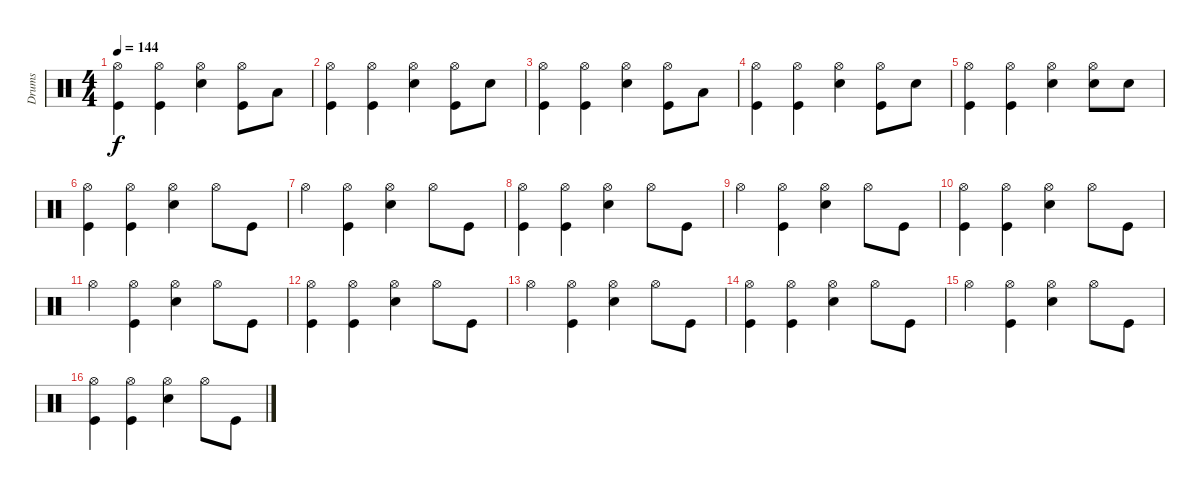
\track ("Drums               " "Drums     ") {instrument percussion}
\staff {score}
\articulation defaults
\ts (4 4)
\tempo 144
\clef neutral
\ks c
("Kick (hit)" "Hi-Hat (open)").4{dy f} ("Kick (hit)" "Hi-Hat (open)").4 ("Snare (hit) 2" "Hi-Hat (open)").4 ("Kick (hit)" "Hi-Hat (open)").8 "Low Tom (hit)".8 |
("Kick (hit)" "Hi-Hat (open)").4 ("Kick (hit)" "Hi-Hat (open)").4 ("Snare (hit) 2" "Hi-Hat (open)").4 ("Hi-Hat (open)" "Kick (hit)").8 "Snare (hit) 2".8 |
("Kick (hit)" "Hi-Hat (open)").4 ("Kick (hit)" "Hi-Hat (open)").4 ("Snare (hit) 2" "Hi-Hat (open)").4 ("Kick (hit)" "Hi-Hat (open)").8 "Low Tom (hit)".8 |
("Kick (hit)" "Hi-Hat (open)").4 ("Kick (hit)" "Hi-Hat (open)").4 ("Snare (hit) 2" "Hi-Hat (open)").4 ("Hi-Hat (open)" "Kick (hit)").8 "Snare (hit) 2".8 |
("Kick (hit)" "Hi-Hat (open)").4 ("Kick (hit)" "Hi-Hat (open)").4 ("Snare (hit) 2" "Hi-Hat (open)").4 ("Hi-Hat (open)" "Snare (hit) 2").8 "Snare (hit) 2".8 |
("Kick (hit)" "Hi-Hat (open)").4 ("Kick (hit)" "Hi-Hat (open)").4 ("Snare (hit) 2" "Hi-Hat (open)").4 "Hi-Hat (open)".8 "Kick (hit)".8 |
"Hi-Hat (open)".4 ("Hi-Hat (open)" "Kick (hit)").4 ("Snare (hit) 2" "Hi-Hat (open)").4 "Hi-Hat (open)".8 "Kick (hit)".8 |
("Kick (hit)" "Hi-Hat (open)").4 ("Kick (hit)" "Hi-Hat (open)").4 ("Snare (hit) 2" "Hi-Hat (open)").4 "Hi-Hat (open)".8 "Kick (hit)".8 |
"Hi-Hat (open)".4 ("Hi-Hat (open)" "Kick (hit)").4 ("Snare (hit) 2" "Hi-Hat (open)").4 "Hi-Hat (open)".8 "Kick (hit)".8 |
("Kick (hit)" "Hi-Hat (open)").4 ("Kick (hit)" "Hi-Hat (open)").4 ("Snare (hit) 2" "Hi-Hat (open)").4 "Hi-Hat (open)".8 "Kick (hit)".8 |
"Hi-Hat (open)".4 ("Hi-Hat (open)" "Kick (hit)").4 ("Snare (hit) 2" "Hi-Hat (open)").4 "Hi-Hat (open)".8 "Kick (hit)".8 |
("Kick (hit)" "Hi-Hat (open)").4 ("Kick (hit)" "Hi-Hat (open)").4 ("Snare (hit) 2" "Hi-Hat (open)").4 "Hi-Hat (open)".8 "Kick (hit)".8 |
"Hi-Hat (open)".4 ("Hi-Hat (open)" "Kick (hit)").4 ("Snare (hit) 2" "Hi-Hat (open)").4 "Hi-Hat (open)".8 "Kick (hit)".8 |
("Kick (hit)" "Hi-Hat (open)").4 ("Kick (hit)" "Hi-Hat (open)").4 ("Snare (hit) 2" "Hi-Hat (open)").4 "Hi-Hat (open)".8 "Kick (hit)".8 |
"Hi-Hat (open)".4 ("Hi-Hat (open)" "Kick (hit)").4 ("Snare (hit) 2" "Hi-Hat (open)").4 "Hi-Hat (open)".8 "Kick (hit)".8 |
("Kick (hit)" "Hi-Hat (open)").4 ("Kick (hit)" "Hi-Hat (open)").4 ("Snare (hit) 2" "Hi-Hat (open)").4 "Hi-Hat (open)".8 "Kick (hit)".8
